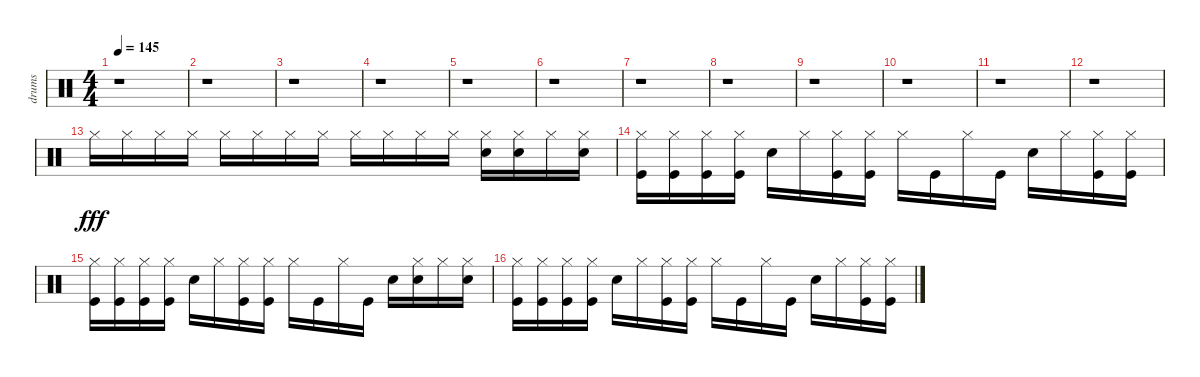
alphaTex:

\track ("drums" "drums") {instrument percussion}
\staff {score}
\articulation defaults
\ts (4 4)
\tempo 145
\clef neutral
\ks c
r.1{dy fff} |
r.1 |
r.1 |
r.1 |
r.1 |
r.1 |
r.1 |
r.1 |
r.1 |
r.1 |
r.1 |
r.1 |
"Hi-Hat (closed)".16 "Hi-Hat (closed)".16 "Hi-Hat (closed)".16 "Hi-Hat (closed)".16 "Hi-Hat (closed)".16 "Hi-Hat (closed)".16 "Hi-Hat (closed)".16 "Hi-Hat (closed)".16 "Hi-Hat (closed)".16 "Hi-Hat (closed)".16 "Hi-Hat (closed)".16 "Hi-Hat (closed)".16 ("Snare (hit) 2" "Hi-Hat (closed)").16 ("Snare (hit) 2" "Hi-Hat (closed)").16 "Hi-Hat (closed)".16 ("Snare (hit) 2" "Hi-Hat (closed)").16 |
("Kick (hit)" "Hi-Hat (closed)").16 ("Kick (hit)" "Hi-Hat (closed)").16 ("Kick (hit)" "Hi-Hat (closed)").16 ("Kick (hit)" "Hi-Hat (closed)").16 "Snare (hit) 2".16 "Hi-Hat (closed)".16 ("Kick (hit)" "Hi-Hat (closed)").16 ("Kick (hit)" "Hi-Hat (closed)").16 "Hi-Hat (closed)".16 "Kick (hit)".16 "Hi-Hat (closed)".16 "Kick (hit)".16 "Snare (hit) 2".16 "Hi-Hat (closed)".16 ("Kick (hit)" "Hi-Hat (closed)").16 ("Kick (hit)" "Hi-Hat (closed)").16 |
("Kick (hit)" "Hi-Hat (closed)").16 ("Kick (hit)" "Hi-Hat (closed)").16 ("Kick (hit)" "Hi-Hat (closed)").16 ("Kick (hit)" "Hi-Hat (closed)").16 "Snare (hit) 2".16 "Hi-Hat (closed)".16 ("Kick (hit)" "Hi-Hat (closed)").16 ("Kick (hit)" "Hi-Hat (closed)").16 "Hi-Hat (closed)".16 "Kick (hit)".16 "Hi-Hat (closed)".16 "Kick (hit)".16 "Snare (hit) 2".16 ("Snare (hit) 2" "Hi-Hat (closed)").16 "Hi-Hat (closed)".16 ("Snare (hit) 2" "Hi-Hat (closed)").16 |
("Kick (hit)" "Hi-Hat (closed)").16 ("Kick (hit)" "Hi-Hat (closed)").16 ("Kick (hit)" "Hi-Hat (closed)").16 ("Kick (hit)" "Hi-Hat (closed)").16 "Snare (hit) 2".16 "Hi-Hat (closed)".16 ("Kick (hit)" "Hi-Hat (closed)").16 ("Kick (hit)" "Hi-Hat (closed)").16 "Hi-Hat (closed)".16 "Kick (hit)".16 "Hi-Hat (closed)".16 "Kick (hit)".16 "Snare (hit) 2".16 "Hi-Hat (closed)".16 ("Kick (hit)" "Hi-Hat (closed)").16 ("Kick (hit)" "Hi-Hat (closed)").16
